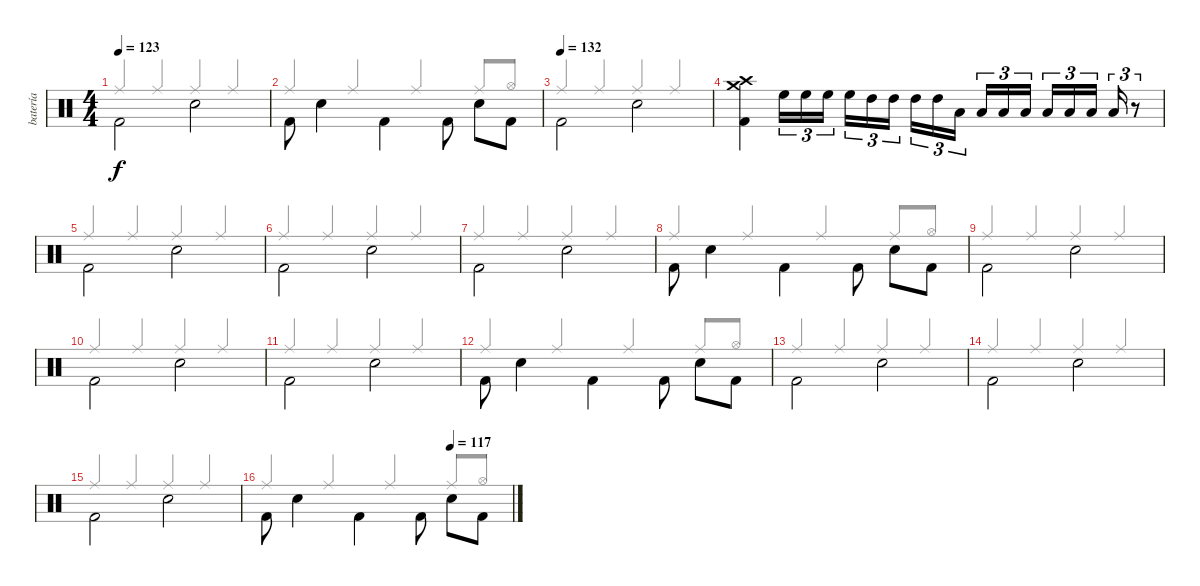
\track ("batería" "batería") {instrument percussion}
\staff {score}
\articulation defaults
\voice
\ts (4 4)
\tempo 123
\clef neutral
\ks c "Kick (hit) 2".2{dy f beam Down} "Snare (hit) 2".2{beam Down}
|
"Kick (hit) 2".8{beam Down} "Snare (hit) 2".4{beam Down} "Kick (hit) 2".4{beam Down} "Kick (hit) 2".8{beam Down} "Snare (hit) 2".8{beam Down} "Kick (hit) 2".8{beam Down} |
\tempo (132)
"Kick (hit) 2".2{beam Down} "Snare (hit) 2".2{beam Down} |
("Crash high (hit)" "Kick (hit) 2" "Crash medium (hit)").4 "High Floor Tom (hit)".16{tu (3 2)} "High Floor Tom (hit)".16{tu (3 2)} "High Floor Tom (hit)".16{tu (3 2) beam splitsecondary} "High Floor Tom (hit)".16{tu (3 2)} "High Tom (hit)".16{tu (3 2)} "High Tom (hit)".16{tu (3 2)} "High Tom (hit)".16{tu (3 2)} "High Tom (hit)".16{tu (3 2)} "Low Tom (hit)".16{tu (3 2) beam splitsecondary} "Low Tom (hit)".16{tu (3 2)} "Low Tom (hit)".16{tu (3 2)} "Low Tom (hit)".16{tu (3 2)} "Low Floor Tom (hit)".16{tu (3 2)} "Low Floor Tom (hit)".16{tu (3 2)} "Low Floor Tom (hit)".16{tu (3 2) beam splitsecondary} "Low Floor Tom (hit)".16{tu (3 2)} r.8{tu (3 2)} |
"Kick (hit) 2".2{beam Down} "Snare (hit) 2".2{beam Down} |
"Kick (hit) 2".2{beam Down} "Snare (hit) 2".2{beam Down} |
"Kick (hit) 2".2{beam Down} "Snare (hit) 2".2{beam Down} |
"Kick (hit) 2".8{beam Down} "Snare (hit) 2".4{beam Down} "Kick (hit) 2".4{beam Down} "Kick (hit) 2".8{beam Down} "Snare (hit) 2".8{beam Down} "Kick (hit) 2".8{beam Down} |
"Kick (hit) 2".2{beam Down} "Snare (hit) 2".2{beam Down} |
"Kick (hit) 2".2{beam Down} "Snare (hit) 2".2{beam Down} |
"Kick (hit) 2".2{beam Down} "Snare (hit) 2".2{beam Down} |
"Kick (hit) 2".8{beam Down} "Snare (hit) 2".4{beam Down} "Kick (hit) 2".4{beam Down} "Kick (hit) 2".8{beam Down} "Snare (hit) 2".8{beam Down} "Kick (hit) 2".8{beam Down} |
"Kick (hit) 2".2{beam Down} "Snare (hit) 2".2{beam Down} |
"Kick (hit) 2".2{beam Down} "Snare (hit) 2".2{beam Down} |
"Kick (hit) 2".2{beam Down} "Snare (hit) 2".2{beam Down} |
\tempo (117 0.75)
"Kick (hit) 2".8{beam Down} "Snare (hit) 2".4{beam Down} "Kick (hit) 2".4{beam Down} "Kick (hit) 2".8{beam Down} "Snare (hit) 2".8{beam Down} "Kick (hit) 2".8{beam Down}
\voice
\clef neutral
\ottava regular
\simile none
\ks c "Ride (middle)".4{dy f beam Up} "Ride (middle)".4{beam Up} "Ride (middle)".4{beam Up} "Ride (middle)".4{beam Up}
|
"Ride (middle)".4{beam Up} "Ride (middle)".4{beam Up} "Ride (middle)".4{beam Up} "Ride (middle)".8{beam Up} "Hi-Hat (open)".8{beam Up} |
"Ride (middle)".4{beam Up} "Ride (middle)".4{beam Up} "Ride (middle)".4{beam Up} "Ride (middle)".4{beam Up} |
|
"Ride (middle)".4{beam Up} "Ride (middle)".4{beam Up} "Ride (middle)".4{beam Up} "Ride (middle)".4{beam Up} |
"Ride (middle)".4{beam Up} "Ride (middle)".4{beam Up} "Ride (middle)".4{beam Up} "Ride (middle)".4{beam Up} |
"Ride (middle)".4{beam Up} "Ride (middle)".4{beam Up} "Ride (middle)".4{beam Up} "Ride (middle)".4{beam Up} |
"Ride (middle)".4{beam Up} "Ride (middle)".4{beam Up} "Ride (middle)".4{beam Up} "Ride (middle)".8{beam Up} "Hi-Hat (open)".8{beam Up} |
"Ride (middle)".4{beam Up} "Ride (middle)".4{beam Up} "Ride (middle)".4{beam Up} "Ride (middle)".4{beam Up} |
"Ride (middle)".4{beam Up} "Ride (middle)".4{beam Up} "Ride (middle)".4{beam Up} "Ride (middle)".4{beam Up} |
"Ride (middle)".4{beam Up} "Ride (middle)".4{beam Up} "Ride (middle)".4{beam Up} "Ride (middle)".4{beam Up} |
"Ride (middle)".4{beam Up} "Ride (middle)".4{beam Up} "Ride (middle)".4{beam Up} "Ride (middle)".8{beam Up} "Hi-Hat (open)".8{beam Up} |
"Ride (middle)".4{beam Up} "Ride (middle)".4{beam Up} "Ride (middle)".4{beam Up} "Ride (middle)".4{beam Up} |
"Ride (middle)".4{beam Up} "Ride (middle)".4{beam Up} "Ride (middle)".4{beam Up} "Ride (middle)".4{beam Up} |
"Ride (middle)".4{beam Up} "Ride (middle)".4{beam Up} "Ride (middle)".4{beam Up} "Ride (middle)".4{beam Up} |
"Ride (middle)".4{beam Up} "Ride (middle)".4{beam Up} "Ride (middle)".4{beam Up} "Ride (middle)".8{beam Up} "Hi-Hat (open)".8{beam Up}
